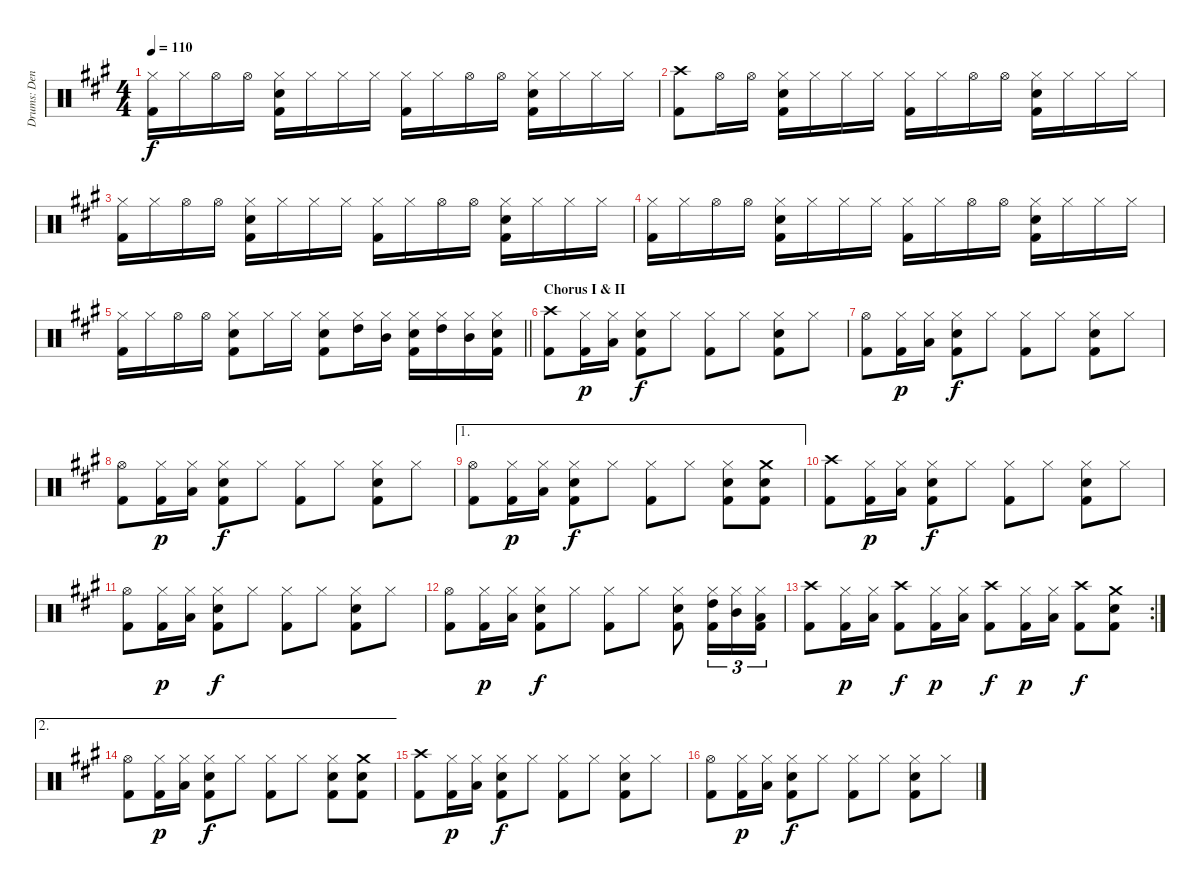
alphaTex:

\track ("Drums: Dennis Elliott" "Drums: Den") {instrument percussion}
\staff {score}
\articulation defaults
\ts (4 4)
\tempo 110
\clef neutral
\ks a
("Hi-Hat (closed)" "Kick (hit) 2").16{dy f} "Hi-Hat (closed)".16 "Hi-Hat (open)".16 "Hi-Hat (open)".16 ("Hi-Hat (closed)" "Snare (hit) 2" "Kick (hit) 2").16 "Hi-Hat (closed)".16 "Hi-Hat (closed)".16 "Hi-Hat (closed)".16 ("Hi-Hat (closed)" "Kick (hit) 2").16 "Hi-Hat (closed)".16 "Hi-Hat (open)".16 "Hi-Hat (open)".16 ("Hi-Hat (closed)" "Snare (hit) 2" "Kick (hit) 2").16 "Hi-Hat (closed)".16 "Hi-Hat (closed)".16 "Hi-Hat (closed)".16 |
("Crash high (hit)" "Kick (hit) 2").8 "Hi-Hat (open)".16 "Hi-Hat (open)".16 ("Hi-Hat (closed)" "Snare (hit) 2" "Kick (hit) 2").16 "Hi-Hat (closed)".16 "Hi-Hat (closed)".16 "Hi-Hat (closed)".16 ("Hi-Hat (closed)" "Kick (hit) 2").16 "Hi-Hat (closed)".16 "Hi-Hat (open)".16 "Hi-Hat (open)".16 ("Hi-Hat (closed)" "Snare (hit) 2" "Kick (hit) 2").16 "Hi-Hat (closed)".16 "Hi-Hat (closed)".16 "Hi-Hat (closed)".16 |
("Hi-Hat (closed)" "Kick (hit) 2").16 "Hi-Hat (closed)".16 "Hi-Hat (open)".16 "Hi-Hat (open)".16 ("Hi-Hat (closed)" "Snare (hit) 2" "Kick (hit) 2").16 "Hi-Hat (closed)".16 "Hi-Hat (closed)".16 "Hi-Hat (closed)".16 ("Hi-Hat (closed)" "Kick (hit) 2").16 "Hi-Hat (closed)".16 "Hi-Hat (open)".16 "Hi-Hat (open)".16 ("Hi-Hat (closed)" "Snare (hit) 2" "Kick (hit) 2").16 "Hi-Hat (closed)".16 "Hi-Hat (closed)".16 "Hi-Hat (closed)".16 |
("Hi-Hat (closed)" "Kick (hit) 2").16 "Hi-Hat (closed)".16 "Hi-Hat (open)".16 "Hi-Hat (open)".16 ("Hi-Hat (closed)" "Snare (hit) 2" "Kick (hit) 2").16 "Hi-Hat (closed)".16 "Hi-Hat (closed)".16 "Hi-Hat (closed)".16 ("Hi-Hat (closed)" "Kick (hit) 2").16 "Hi-Hat (closed)".16 "Hi-Hat (open)".16 "Hi-Hat (open)".16 ("Hi-Hat (closed)" "Snare (hit) 2" "Kick (hit) 2").16 "Hi-Hat (closed)".16 "Hi-Hat (closed)".16 "Hi-Hat (closed)".16 |
\barLineRight lightlight
("Hi-Hat (closed)" "Kick (hit) 2").16 "Hi-Hat (closed)".16 "Hi-Hat (open)".16 "Hi-Hat (open)".16 ("Hi-Hat (closed)" "Snare (hit) 2" "Kick (hit) 2").8 "Hi-Hat (closed)".16 "Hi-Hat (closed)".16 ("Hi-Hat (closed)" "Snare (hit) 2" "Kick (hit) 2").8 ("Hi-Hat (closed)" "High Tom (hit)").16 ("Hi-Hat (closed)" "Mid Tom (hit)").16 ("Hi-Hat (closed)" "Snare (hit) 2" "Kick (hit) 2").16 ("Hi-Hat (closed)" "High Tom (hit)").16 ("Hi-Hat (closed)" "Mid Tom (hit)").16 ("Hi-Hat (closed)" "Snare (hit) 2" "Kick (hit) 2").16 |
\section ("" "Chorus I & II")
("Crash high (hit)" "Kick (hit) 2").8 ("Hi-Hat (closed)" "Kick (hit) 2").16{dy p} ("Hi-Hat (closed)" "Low Tom (hit)").16 ("Hi-Hat (closed)" "Snare (hit) 2" "Kick (hit) 2").8{dy f} "Hi-Hat (closed)".8 ("Hi-Hat (closed)" "Kick (hit) 2").8 "Hi-Hat (closed)".8 ("Hi-Hat (closed)" "Snare (hit) 2" "Kick (hit) 2").8 "Hi-Hat (closed)".8 |
("Hi-Hat (open)" "Kick (hit) 2").8 ("Hi-Hat (closed)" "Kick (hit) 2").16{dy p} ("Hi-Hat (closed)" "Low Tom (hit)").16 ("Hi-Hat (closed)" "Snare (hit) 2" "Kick (hit) 2").8{dy f} "Hi-Hat (closed)".8 ("Hi-Hat (closed)" "Kick (hit) 2").8 "Hi-Hat (closed)".8 ("Hi-Hat (closed)" "Snare (hit) 2" "Kick (hit) 2").8 "Hi-Hat (closed)".8 |
("Hi-Hat (open)" "Kick (hit) 2").8 ("Hi-Hat (closed)" "Kick (hit) 2").16{dy p} ("Hi-Hat (closed)" "Low Tom (hit)").16 ("Hi-Hat (closed)" "Snare (hit) 2" "Kick (hit) 2").8{dy f} "Hi-Hat (closed)".8 ("Hi-Hat (closed)" "Kick (hit) 2").8 "Hi-Hat (closed)".8 ("Hi-Hat (closed)" "Snare (hit) 2" "Kick (hit) 2").8 "Hi-Hat (closed)".8 |
\ae 1
("Hi-Hat (open)" "Kick (hit) 2").8 ("Hi-Hat (closed)" "Kick (hit) 2").16{dy p} ("Hi-Hat (closed)" "Low Tom (hit)").16 ("Hi-Hat (closed)" "Snare (hit) 2" "Kick (hit) 2").8{dy f} "Hi-Hat (closed)".8 ("Hi-Hat (closed)" "Kick (hit) 2").8 "Hi-Hat (closed)".8 ("Hi-Hat (closed)" "Snare (hit) 2" "Kick (hit) 2").8 ("Crash medium (hit)" "Snare (hit) 2" "Kick (hit) 2").8 |
("Crash high (hit)" "Kick (hit) 2").8 ("Hi-Hat (closed)" "Kick (hit) 2").16{dy p} ("Hi-Hat (closed)" "Low Tom (hit)").16 ("Hi-Hat (closed)" "Snare (hit) 2" "Kick (hit) 2").8{dy f} "Hi-Hat (closed)".8 ("Hi-Hat (closed)" "Kick (hit) 2").8 "Hi-Hat (closed)".8 ("Hi-Hat (closed)" "Snare (hit) 2" "Kick (hit) 2").8 "Hi-Hat (closed)".8 |
("Hi-Hat (open)" "Kick (hit) 2").8 ("Hi-Hat (closed)" "Kick (hit) 2").16{dy p} ("Hi-Hat (closed)" "Low Tom (hit)").16 ("Hi-Hat (closed)" "Snare (hit) 2" "Kick (hit) 2").8{dy f} "Hi-Hat (closed)".8 ("Hi-Hat (closed)" "Kick (hit) 2").8 "Hi-Hat (closed)".8 ("Hi-Hat (closed)" "Snare (hit) 2" "Kick (hit) 2").8 "Hi-Hat (closed)".8 |
("Hi-Hat (open)" "Kick (hit) 2").8 ("Hi-Hat (closed)" "Kick (hit) 2").16{dy p} ("Hi-Hat (closed)" "Low Tom (hit)").16 ("Hi-Hat (closed)" "Snare (hit) 2" "Kick (hit) 2").8{dy f} "Hi-Hat (closed)".8 ("Hi-Hat (closed)" "Kick (hit) 2").8 "Hi-Hat (closed)".8 ("Hi-Hat (closed)" "Snare (hit) 2" "Kick (hit) 2").8 ("Hi-Hat (closed)" "High Tom (hit)" "Kick (hit) 2").16{tu (3 2)} ("Hi-Hat (closed)" "Mid Tom (hit)").16{tu (3 2)} ("Hi-Hat (closed)" "Low Tom (hit)" "Kick (hit) 2").16{tu (3 2)} |
\rc 2
("Crash high (hit)" "Kick (hit) 2").8 ("Hi-Hat (closed)" "Kick (hit) 2").16{dy p} ("Hi-Hat (closed)" "Low Tom (hit)").16 ("Crash high (hit)" "Kick (hit) 2").8{dy f} ("Hi-Hat (closed)" "Kick (hit) 2").16{dy p} ("Hi-Hat (closed)" "Low Tom (hit)").16 ("Crash high (hit)" "Kick (hit) 2").8{dy f} ("Hi-Hat (closed)" "Kick (hit) 2").16{dy p} ("Hi-Hat (closed)" "Low Tom (hit)").16 ("Crash high (hit)" "Kick (hit) 2").8{dy f} ("Crash medium (hit)" "Snare (hit) 2" "Kick (hit) 2").8 |
\ae 2
("Hi-Hat (open)" "Kick (hit) 2").8 ("Hi-Hat (closed)" "Kick (hit) 2").16{dy p} ("Hi-Hat (closed)" "Low Tom (hit)").16 ("Hi-Hat (closed)" "Snare (hit) 2" "Kick (hit) 2").8{dy f} "Hi-Hat (closed)".8 ("Hi-Hat (closed)" "Kick (hit) 2").8 "Hi-Hat (closed)".8 ("Hi-Hat (closed)" "Snare (hit) 2" "Kick (hit) 2").8 ("Crash medium (hit)" "Snare (hit) 2" "Kick (hit) 2").8 |
("Crash high (hit)" "Kick (hit) 2").8 ("Hi-Hat (closed)" "Kick (hit) 2").16{dy p} ("Hi-Hat (closed)" "Low Tom (hit)").16 ("Hi-Hat (closed)" "Snare (hit) 2" "Kick (hit) 2").8{dy f} "Hi-Hat (closed)".8 ("Hi-Hat (closed)" "Kick (hit) 2").8 "Hi-Hat (closed)".8 ("Hi-Hat (closed)" "Snare (hit) 2" "Kick (hit) 2").8 "Hi-Hat (closed)".8 |
("Hi-Hat (open)" "Kick (hit) 2").8 ("Hi-Hat (closed)" "Kick (hit) 2").16{dy p} ("Hi-Hat (closed)" "Low Tom (hit)").16 ("Hi-Hat (closed)" "Snare (hit) 2" "Kick (hit) 2").8{dy f} "Hi-Hat (closed)".8 ("Hi-Hat (closed)" "Kick (hit) 2").8 "Hi-Hat (closed)".8 ("Hi-Hat (closed)" "Snare (hit) 2" "Kick (hit) 2").8 "Hi-Hat (closed)".8
